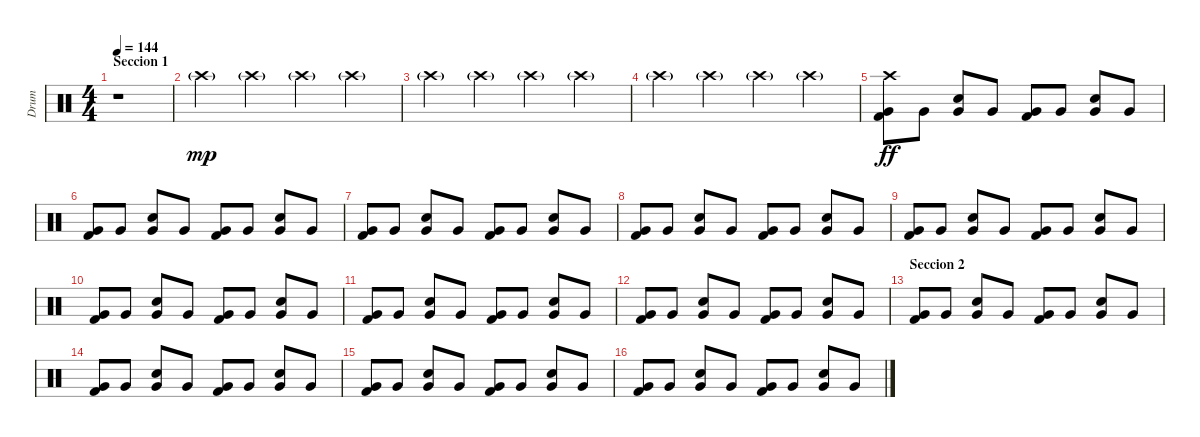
\track ("Drum" "Drum") {instrument percussion}
\staff {score}
\articulation defaults
\ts (4 4)
\section ("" "Seccion 1")
\tempo 144
\clef neutral
\ks c
r.1{dy mp} |
"Crash high (hit)"{g}.4{volume 6} "Crash high (hit)"{g}.4{volume 14} "Crash high (hit)"{g}.4 "Crash high (hit)"{g}.4 |
"Crash high (hit)"{g}.4 "Crash high (hit)"{g}.4 "Crash high (hit)"{g}.4 "Crash high (hit)"{g}.4 |
"Crash high (hit)"{g}.4 "Crash high (hit)"{g}.4 "Crash high (hit)"{g}.4 "Crash high (hit)"{g}.4 |
("Crash high (hit)" "Very Low Tom (hit)" "Kick (hit) 2").8{dy ff volume 14} "Very Low Tom (hit)".8 ("Electric Snare (hit)" "Very Low Tom (hit)").8 "Very Low Tom (hit)".8 ("Very Low Tom (hit)" "Kick (hit) 2").8 "Very Low Tom (hit)".8 ("Electric Snare (hit)" "Very Low Tom (hit)").8 "Very Low Tom (hit)".8 |
("Very Low Tom (hit)" "Kick (hit) 2").8 "Very Low Tom (hit)".8 ("Electric Snare (hit)" "Very Low Tom (hit)").8 "Very Low Tom (hit)".8 ("Very Low Tom (hit)" "Kick (hit) 2").8 "Very Low Tom (hit)".8 ("Electric Snare (hit)" "Very Low Tom (hit)").8 "Very Low Tom (hit)".8 |
("Very Low Tom (hit)" "Kick (hit) 2").8 "Very Low Tom (hit)".8 ("Electric Snare (hit)" "Very Low Tom (hit)").8 "Very Low Tom (hit)".8 ("Very Low Tom (hit)" "Kick (hit) 2").8 "Very Low Tom (hit)".8 ("Electric Snare (hit)" "Very Low Tom (hit)").8 "Very Low Tom (hit)".8 |
("Very Low Tom (hit)" "Kick (hit) 2").8 "Very Low Tom (hit)".8 ("Electric Snare (hit)" "Very Low Tom (hit)").8 "Very Low Tom (hit)".8 ("Very Low Tom (hit)" "Kick (hit) 2").8 "Very Low Tom (hit)".8 ("Electric Snare (hit)" "Very Low Tom (hit)").8 "Very Low Tom (hit)".8 |
("Very Low Tom (hit)" "Kick (hit) 2").8 "Very Low Tom (hit)".8 ("Electric Snare (hit)" "Very Low Tom (hit)").8 "Very Low Tom (hit)".8 ("Very Low Tom (hit)" "Kick (hit) 2").8 "Very Low Tom (hit)".8 ("Electric Snare (hit)" "Very Low Tom (hit)").8 "Very Low Tom (hit)".8 |
("Very Low Tom (hit)" "Kick (hit) 2").8 "Very Low Tom (hit)".8 ("Electric Snare (hit)" "Very Low Tom (hit)").8 "Very Low Tom (hit)".8 ("Very Low Tom (hit)" "Kick (hit) 2").8 "Very Low Tom (hit)".8 ("Electric Snare (hit)" "Very Low Tom (hit)").8 "Very Low Tom (hit)".8 |
("Very Low Tom (hit)" "Kick (hit) 2").8 "Very Low Tom (hit)".8 ("Electric Snare (hit)" "Very Low Tom (hit)").8 "Very Low Tom (hit)".8 ("Very Low Tom (hit)" "Kick (hit) 2").8 "Very Low Tom (hit)".8 ("Electric Snare (hit)" "Very Low Tom (hit)").8 "Very Low Tom (hit)".8 |
("Very Low Tom (hit)" "Kick (hit) 2").8 "Very Low Tom (hit)".8 ("Electric Snare (hit)" "Very Low Tom (hit)").8 "Very Low Tom (hit)".8 ("Very Low Tom (hit)" "Kick (hit) 2").8 "Very Low Tom (hit)".8 ("Electric Snare (hit)" "Very Low Tom (hit)").8 "Very Low Tom (hit)".8 |
\section ("" "Seccion 2")
("Very Low Tom (hit)" "Kick (hit) 2").8 "Very Low Tom (hit)".8 ("Electric Snare (hit)" "Very Low Tom (hit)").8 "Very Low Tom (hit)".8 ("Very Low Tom (hit)" "Kick (hit) 2").8 "Very Low Tom (hit)".8 ("Electric Snare (hit)" "Very Low Tom (hit)").8 "Very Low Tom (hit)".8 |
("Very Low Tom (hit)" "Kick (hit) 2").8 "Very Low Tom (hit)".8 ("Electric Snare (hit)" "Very Low Tom (hit)").8 "Very Low Tom (hit)".8 ("Very Low Tom (hit)" "Kick (hit) 2").8 "Very Low Tom (hit)".8 ("Electric Snare (hit)" "Very Low Tom (hit)").8 "Very Low Tom (hit)".8 |
("Very Low Tom (hit)" "Kick (hit) 2").8 "Very Low Tom (hit)".8 ("Electric Snare (hit)" "Very Low Tom (hit)").8 "Very Low Tom (hit)".8 ("Very Low Tom (hit)" "Kick (hit) 2").8 "Very Low Tom (hit)".8 ("Electric Snare (hit)" "Very Low Tom (hit)").8 "Very Low Tom (hit)".8 |
("Very Low Tom (hit)" "Kick (hit) 2").8 "Very Low Tom (hit)".8 ("Electric Snare (hit)" "Very Low Tom (hit)").8 "Very Low Tom (hit)".8 ("Very Low Tom (hit)" "Kick (hit) 2").8 "Very Low Tom (hit)".8 ("Electric Snare (hit)" "Very Low Tom (hit)").8 "Very Low Tom (hit)".8
